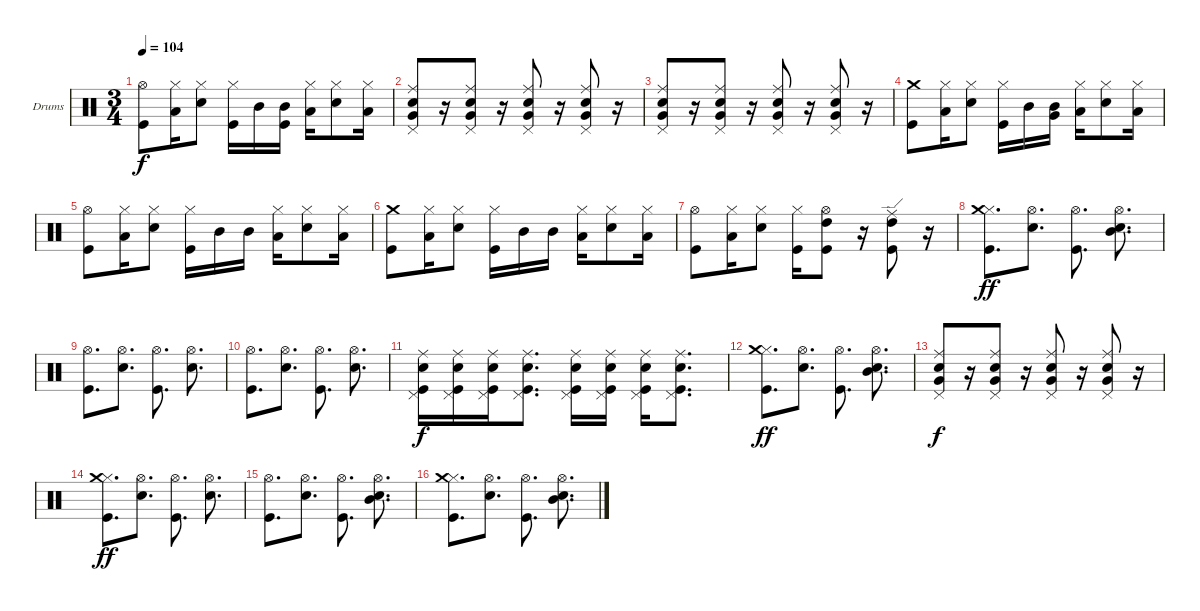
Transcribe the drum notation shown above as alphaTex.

\bracketExtendMode groupsimilarinstruments
\firstSystemTrackNameOrientation horizontal
\otherSystemsTrackNameOrientation horizontal
\track ("Drumkit" "Drums") {instrument percussion}
\staff {score}
\articulation defaults
\ts (3 4)
\tempo 104
\clef neutral
\ks c
("Kick (hit)" "Hi-Hat (open)").8{dy f} ("Hi-Hat (closed)" "Low Tom (hit)").16 ("Snare (hit) 2" "Hi-Hat (closed)").8 ("Hi-Hat (closed)" "Kick (hit)").16 "Mid Tom (hit)".16 ("Mid Tom (hit)" "Kick (hit)").16 ("Hi-Hat (closed)" "Low Tom (hit)").16 ("Snare (hit) 2" "Hi-Hat (closed)").8 ("Hi-Hat (closed)" "Low Tom (hit)").16 |
("Pedal Hi-Hat (hit)" "Snare (hit) 2" "Ride (middle)" "Very Low Tom (hit)").8 r.16 ("Pedal Hi-Hat (hit)" "Snare (hit) 2" "Ride (middle)" "Very Low Tom (hit)").8 r.16 ("Pedal Hi-Hat (hit)" "Snare (hit) 2" "Ride (middle)" "Very Low Tom (hit)").8 r.16 ("Pedal Hi-Hat (hit)" "Snare (hit) 2" "Ride (middle)" "Very Low Tom (hit)").8 r.16 |
("Pedal Hi-Hat (hit)" "Snare (hit) 2" "Ride (middle)" "Very Low Tom (hit)").8 r.16 ("Pedal Hi-Hat (hit)" "Snare (hit) 2" "Ride (middle)" "Very Low Tom (hit)").8 r.16 ("Pedal Hi-Hat (hit)" "Snare (hit) 2" "Ride (middle)" "Very Low Tom (hit)").8 r.16 ("Pedal Hi-Hat (hit)" "Snare (hit) 2" "Ride (middle)" "Very Low Tom (hit)").8 r.16 |
("Kick (hit)" "Crash medium (hit)").8 ("Hi-Hat (closed)" "Low Tom (hit)").16 ("Snare (hit) 2" "Hi-Hat (closed)").8 ("Hi-Hat (closed)" "Kick (hit)").16 "Mid Tom (hit)".16 ("Mid Tom (hit)" "Very Low Tom (hit)").16 ("Hi-Hat (closed)" "Low Tom (hit)").16 ("Snare (hit) 2" "Hi-Hat (closed)").8 ("Hi-Hat (closed)" "Low Tom (hit)").16 |
("Kick (hit)" "Hi-Hat (open)").8 ("Hi-Hat (closed)" "Low Tom (hit)").16 ("Snare (hit) 2" "Hi-Hat (closed)").8 ("Hi-Hat (closed)" "Kick (hit)").16 "Mid Tom (hit)".16 "Mid Tom (hit)".16 ("Hi-Hat (closed)" "Low Tom (hit)").16 ("Snare (hit) 2" "Hi-Hat (closed)").8 ("Hi-Hat (closed)" "Low Tom (hit)").16 |
("Kick (hit)" "Crash medium (hit)").8 ("Hi-Hat (closed)" "Low Tom (hit)").16 ("Snare (hit) 2" "Hi-Hat (closed)").8 ("Hi-Hat (closed)" "Kick (hit)").16 "Mid Tom (hit)".16 "Mid Tom (hit)".16 ("Hi-Hat (closed)" "Low Tom (hit)").16 ("Snare (hit) 2" "Hi-Hat (closed)").8 ("Hi-Hat (closed)" "Low Tom (hit)").16 |
("Kick (hit)" "Hi-Hat (open)").8 ("Hi-Hat (closed)" "Low Tom (hit)").16 ("Snare (hit) 2" "Hi-Hat (closed)").8 ("Hi-Hat (closed)" "Kick (hit)").16 ("Kick (hit)" "Hi-Hat (open)" "High Tom (hit)").8 r.16 ("Kick (hit)" "High Tom (hit)" "Ride (edge)").8 r.16 |
("Kick (hit)" "Hi-Hat (closed)" "Crash medium (hit)").8{d dy ff} ("Snare (hit) 2" "Hi-Hat (open)").8{d} ("Kick (hit)" "Hi-Hat (open)").8{d} ("Snare (hit) 2" "Hi-Hat (open)" "Mid Tom (hit)").8{d} |
("Kick (hit)" "Hi-Hat (open)").8{d} ("Snare (hit) 2" "Hi-Hat (open)").8{d} ("Kick (hit)" "Hi-Hat (open)").8{d} ("Snare (hit) 2" "Hi-Hat (open)").8{d} |
("Kick (hit)" "Hi-Hat (open)").8{d} ("Snare (hit) 2" "Hi-Hat (open)").8{d} ("Kick (hit)" "Hi-Hat (open)").8{d} ("Snare (hit) 2" "Hi-Hat (open)").8{d} |
("Pedal Hi-Hat (hit)" "Snare (hit) 2" "Kick (hit)" "Ride (middle)").16{dy f} ("Pedal Hi-Hat (hit)" "Snare (hit) 2" "Kick (hit)" "Ride (middle)").16 ("Pedal Hi-Hat (hit)" "Snare (hit) 2" "Kick (hit)" "Ride (middle)").16 ("Pedal Hi-Hat (hit)" "Snare (hit) 2" "Kick (hit)" "Ride (middle)").8{d} ("Pedal Hi-Hat (hit)" "Snare (hit) 2" "Kick (hit)" "Ride (middle)").16 ("Pedal Hi-Hat (hit)" "Snare (hit) 2" "Kick (hit)" "Ride (middle)").16 ("Pedal Hi-Hat (hit)" "Snare (hit) 2" "Kick (hit)" "Ride (middle)").16 ("Pedal Hi-Hat (hit)" "Snare (hit) 2" "Kick (hit)" "Ride (middle)").8{d} |
("Kick (hit)" "Hi-Hat (closed)" "Crash medium (hit)").8{d dy ff} ("Snare (hit) 2" "Hi-Hat (open)").8{d} ("Kick (hit)" "Hi-Hat (open)").8{d} ("Snare (hit) 2" "Hi-Hat (open)" "Mid Tom (hit)").8{d} |
("Pedal Hi-Hat (hit)" "Snare (hit) 2" "Ride (middle)" "Very Low Tom (hit)").8{dy f} r.16 ("Pedal Hi-Hat (hit)" "Snare (hit) 2" "Ride (middle)" "Very Low Tom (hit)").8 r.16 ("Pedal Hi-Hat (hit)" "Snare (hit) 2" "Ride (middle)" "Very Low Tom (hit)").8 r.16 ("Pedal Hi-Hat (hit)" "Snare (hit) 2" "Ride (middle)" "Very Low Tom (hit)").8 r.16 |
("Kick (hit)" "Hi-Hat (closed)" "Crash medium (hit)").8{d dy ff} ("Snare (hit) 2" "Hi-Hat (open)").8{d} ("Kick (hit)" "Hi-Hat (open)").8{d} ("Snare (hit) 2" "Hi-Hat (open)").8{d} |
("Kick (hit)" "Hi-Hat (open)").8{d} ("Snare (hit) 2" "Hi-Hat (open)").8{d} ("Kick (hit)" "Hi-Hat (open)").8{d} ("Snare (hit) 2" "Hi-Hat (open)" "Mid Tom (hit)").8{d} |
("Kick (hit)" "Hi-Hat (closed)" "Crash medium (hit)").8{d} ("Snare (hit) 2" "Hi-Hat (open)").8{d} ("Kick (hit)" "Hi-Hat (open)").8{d} ("Snare (hit) 2" "Hi-Hat (open)" "Mid Tom (hit)").8{d}
